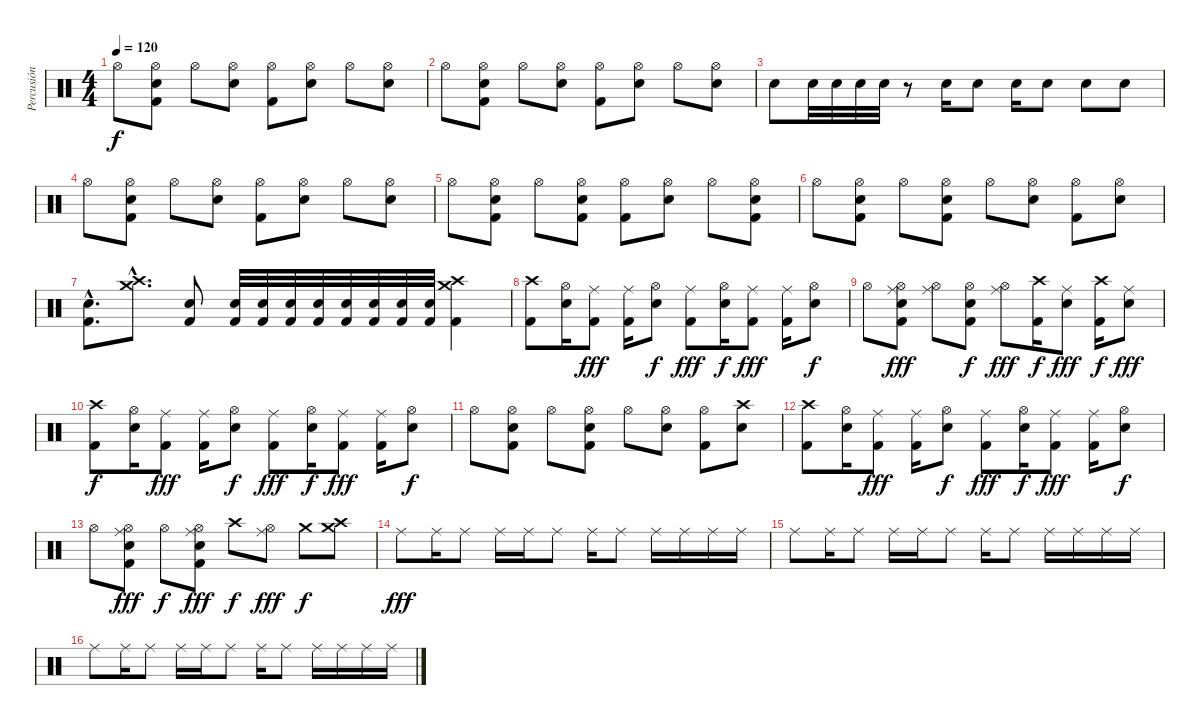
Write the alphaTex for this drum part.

\track ("Percusión" "Percusión") {instrument percussion}
\staff {score}
\articulation defaults
\ts (4 4)
\tempo 120
\clef neutral
\ks c "Hi-Hat (open)".8{dy f}
("Hi-Hat (open)" "Snare (hit) 2" "Kick (hit) 2").8 "Hi-Hat (open)".8 ("Hi-Hat (open)" "Snare (hit) 2").8 ("Hi-Hat (open)" "Kick (hit) 2").8 ("Hi-Hat (open)" "Snare (hit) 2").8 "Hi-Hat (open)".8 ("Hi-Hat (open)" "Snare (hit) 2").8 |
"Hi-Hat (open)".8 ("Hi-Hat (open)" "Snare (hit) 2" "Kick (hit) 2").8 "Hi-Hat (open)".8 ("Hi-Hat (open)" "Snare (hit) 2").8 ("Hi-Hat (open)" "Kick (hit) 2").8 ("Hi-Hat (open)" "Snare (hit) 2").8 "Hi-Hat (open)".8 ("Hi-Hat (open)" "Snare (hit) 2").8 |
"Snare (hit) 2".8 "Snare (hit) 2".32 "Snare (hit) 2".32 "Snare (hit) 2".32 "Snare (hit) 2".32 r.8 "Snare (hit) 2".16 "Snare (hit) 2".8 "Snare (hit) 2".16 "Snare (hit) 2".8 "Snare (hit) 2".8 "Snare (hit) 2".8 |
"Hi-Hat (open)".8 ("Hi-Hat (open)" "Snare (hit) 2" "Kick (hit) 2").8 "Hi-Hat (open)".8 ("Hi-Hat (open)" "Snare (hit) 2").8 ("Hi-Hat (open)" "Kick (hit) 2").8 ("Hi-Hat (open)" "Snare (hit) 2").8 "Hi-Hat (open)".8 ("Hi-Hat (open)" "Snare (hit) 2").8 |
"Hi-Hat (open)".8 ("Hi-Hat (open)" "Snare (hit) 2" "Kick (hit) 2").8 "Hi-Hat (open)".8 ("Hi-Hat (open)" "Snare (hit) 2" "Kick (hit) 2").8 ("Hi-Hat (open)" "Kick (hit) 2").8 ("Hi-Hat (open)" "Snare (hit) 2").8 "Hi-Hat (open)".8 ("Hi-Hat (open)" "Snare (hit) 2" "Kick (hit) 2").8 |
"Hi-Hat (open)".8 ("Hi-Hat (open)" "Snare (hit) 2" "Kick (hit) 2").8 "Hi-Hat (open)".8 ("Hi-Hat (open)" "Snare (hit) 2" "Kick (hit) 2").8 "Hi-Hat (open)".8 ("Hi-Hat (open)" "Snare (hit) 2").8 ("Hi-Hat (open)" "Kick (hit) 2").8 ("Hi-Hat (open)" "Snare (hit) 2").8 |
("Snare (hit) 2"{hac} "Kick (hit) 2"{hac}).8{d} ("Crash high (hit)"{hac} "Crash medium (hit)"{hac}).8{d} ("Snare (hit) 2" "Kick (hit) 2").8 ("Kick (hit) 2" "Snare (hit) 2").32 ("Kick (hit) 2" "Snare (hit) 2").32 ("Kick (hit) 2" "Snare (hit) 2").32 ("Kick (hit) 2" "Snare (hit) 2").32 ("Kick (hit) 2" "Snare (hit) 2").32 ("Kick (hit) 2" "Snare (hit) 2").32 ("Kick (hit) 2" "Snare (hit) 2").32 ("Kick (hit) 2" "Snare (hit) 2").32 ("Crash high (hit)" "Crash medium (hit)" "Kick (hit) 2").4 |
("Crash high (hit)" "Kick (hit) 2").8 ("Hi-Hat (open)" "Snare (hit) 2").16 ("Ride (middle)" "Kick (hit) 2").8{dy fff} ("Ride (middle)" "Kick (hit) 2").16 ("Hi-Hat (open)" "Snare (hit) 2").8{dy f} ("Ride (middle)" "Kick (hit) 2").8{dy fff} ("Hi-Hat (open)" "Snare (hit) 2").16{dy f} ("Ride (middle)" "Kick (hit) 2").8{dy fff} ("Ride (middle)" "Kick (hit) 2").16 ("Hi-Hat (open)" "Snare (hit) 2").8{dy f} |
"Hi-Hat (open)".8 ("Ride (middle)" "Hi-Hat (open)" "Snare (hit) 2" "Kick (hit) 2").8{dy fff} ("Ride (middle)" "Hi-Hat (open)").8 ("Hi-Hat (open)" "Snare (hit) 2" "Kick (hit) 2").8{dy f} ("Ride (middle)" "Hi-Hat (open)").8{dy fff} ("Crash high (hit)" "Kick (hit) 2").16{dy f} ("Ride (middle)" "Snare (hit) 2").8{dy fff} ("Crash high (hit)" "Kick (hit) 2").16{dy f} ("Ride (middle)" "Snare (hit) 2").8{dy fff} |
("Crash high (hit)" "Kick (hit) 2").8{dy f} ("Hi-Hat (open)" "Snare (hit) 2").16 ("Ride (middle)" "Kick (hit) 2").8{dy fff} ("Ride (middle)" "Kick (hit) 2").16 ("Hi-Hat (open)" "Snare (hit) 2").8{dy f} ("Ride (middle)" "Kick (hit) 2").8{dy fff} ("Hi-Hat (open)" "Snare (hit) 2").16{dy f} ("Ride (middle)" "Kick (hit) 2").8{dy fff} ("Ride (middle)" "Kick (hit) 2").16 ("Hi-Hat (open)" "Snare (hit) 2").8{dy f} |
"Hi-Hat (open)".8 ("Hi-Hat (open)" "Snare (hit) 2" "Kick (hit) 2").8 "Hi-Hat (open)".8 ("Hi-Hat (open)" "Snare (hit) 2" "Kick (hit) 2").8 "Hi-Hat (open)".8 ("Hi-Hat (open)" "Snare (hit) 2").8 ("Hi-Hat (open)" "Kick (hit) 2").8 ("Crash high (hit)" "Snare (hit) 2").8 |
("Crash high (hit)" "Kick (hit) 2").8 ("Hi-Hat (open)" "Snare (hit) 2").16 ("Ride (middle)" "Kick (hit) 2").8{dy fff} ("Ride (middle)" "Kick (hit) 2").16 ("Hi-Hat (open)" "Snare (hit) 2").8{dy f} ("Ride (middle)" "Kick (hit) 2").8{dy fff} ("Hi-Hat (open)" "Snare (hit) 2").16{dy f} ("Ride (middle)" "Kick (hit) 2").8{dy fff} ("Ride (middle)" "Kick (hit) 2").16 ("Hi-Hat (open)" "Snare (hit) 2").8{dy f} |
"Hi-Hat (open)".8 ("Ride (middle)" "Hi-Hat (open)" "Snare (hit) 2" "Kick (hit) 2").8{dy fff} "Hi-Hat (open)".8{dy f} ("Ride (middle)" "Hi-Hat (open)" "Snare (hit) 2" "Kick (hit) 2").8{dy fff} "Crash high (hit)".8{dy f} ("Ride (middle)" "Hi-Hat (open)").8{dy fff} "Crash medium (hit)".8{dy f} ("Crash high (hit)" "Crash medium (hit)").8 |
"Ride (middle)".8{dy fff} "Ride (middle)".16 "Ride (middle)".8 "Ride (middle)".16 "Ride (middle)".16 "Ride (middle)".8 "Ride (middle)".16 "Ride (middle)".8 "Ride (middle)".16 "Ride (middle)".16 "Ride (middle)".16 "Ride (middle)".16 |
"Ride (middle)".8 "Ride (middle)".16 "Ride (middle)".8 "Ride (middle)".16 "Ride (middle)".16 "Ride (middle)".8 "Ride (middle)".16 "Ride (middle)".8 "Ride (middle)".16 "Ride (middle)".16 "Ride (middle)".16 "Ride (middle)".16 |
"Ride (middle)".8 "Ride (middle)".16 "Ride (middle)".8 "Ride (middle)".16 "Ride (middle)".16 "Ride (middle)".8 "Ride (middle)".16 "Ride (middle)".8 "Ride (middle)".16 "Ride (middle)".16 "Ride (middle)".16 "Ride (middle)".16
